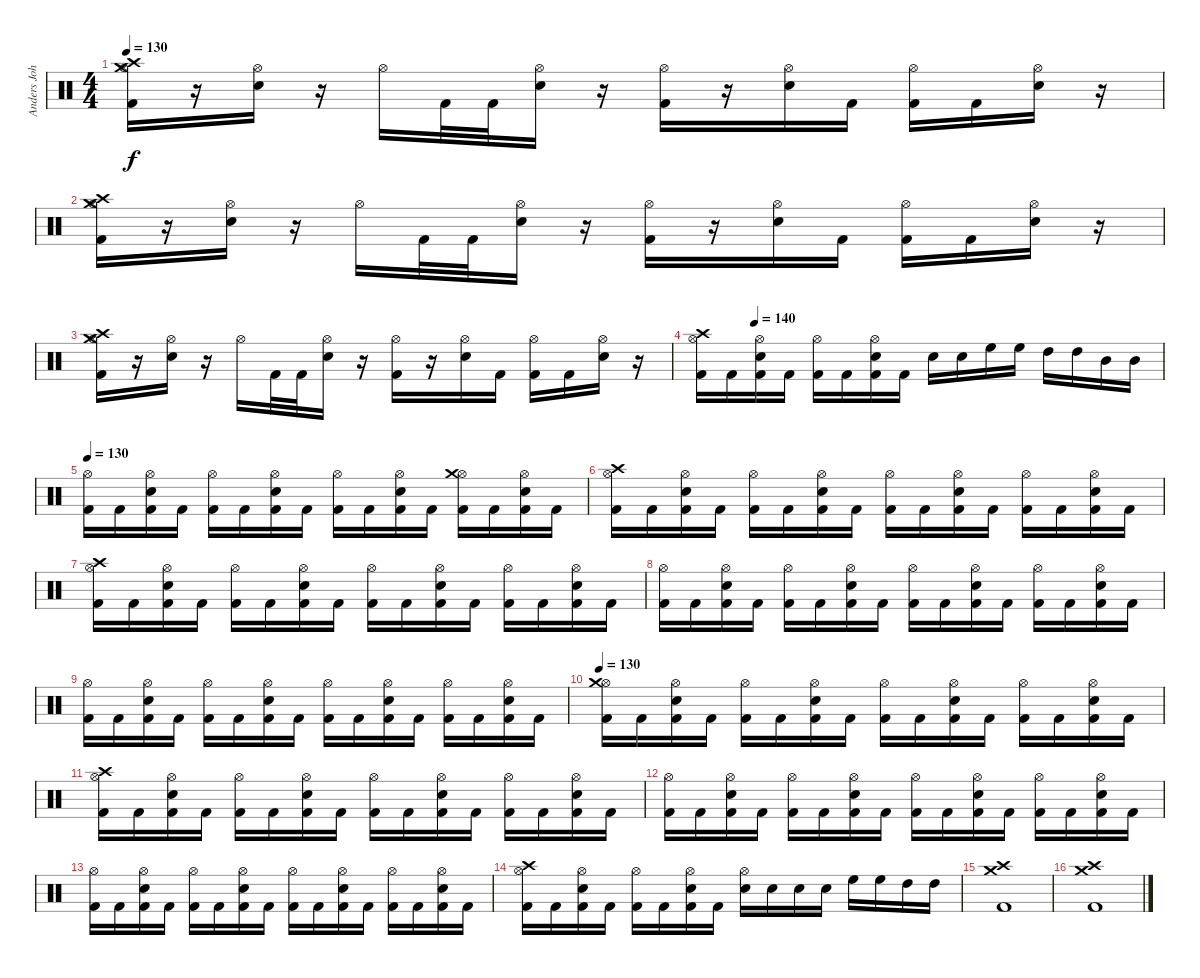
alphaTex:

\track ("Anders Johansson - Drums" "Anders Joh") {instrument percussion}
\staff {score}
\articulation defaults
\ts (4 4)
\tempo 130
\clef neutral
\ks c
("Hi-Hat (open)" "Kick (hit) 2" "Crash medium (hit)" "Crash high (hit)").16{dy f} r.16 ("Hi-Hat (open)" "Electric Snare (hit)").16 r.16 "Hi-Hat (open)".16 "Kick (hit) 2".32 "Kick (hit) 2".32 ("Hi-Hat (open)" "Electric Snare (hit)").16 r.16 ("Hi-Hat (open)" "Kick (hit) 2").16 r.16 ("Hi-Hat (open)" "Electric Snare (hit)").16 "Kick (hit) 2".16 ("Hi-Hat (open)" "Kick (hit) 2").16 "Kick (hit) 2".16 ("Hi-Hat (open)" "Electric Snare (hit)").16 r.16 |
("Hi-Hat (open)" "Kick (hit) 2" "Crash medium (hit)" "Crash high (hit)").16 r.16 ("Hi-Hat (open)" "Electric Snare (hit)").16 r.16 "Hi-Hat (open)".16 "Kick (hit) 2".32 "Kick (hit) 2".32 ("Hi-Hat (open)" "Electric Snare (hit)").16 r.16 ("Hi-Hat (open)" "Kick (hit) 2").16 r.16 ("Hi-Hat (open)" "Electric Snare (hit)").16 "Kick (hit) 2".16 ("Hi-Hat (open)" "Kick (hit) 2").16 "Kick (hit) 2".16 ("Hi-Hat (open)" "Electric Snare (hit)").16 r.16 |
("Hi-Hat (open)" "Kick (hit) 2" "Crash medium (hit)" "Crash high (hit)").16 r.16 ("Hi-Hat (open)" "Electric Snare (hit)").16 r.16 "Hi-Hat (open)".16 "Kick (hit) 2".32 "Kick (hit) 2".32 ("Hi-Hat (open)" "Electric Snare (hit)").16 r.16 ("Hi-Hat (open)" "Kick (hit) 2").16 r.16 ("Hi-Hat (open)" "Electric Snare (hit)").16 "Kick (hit) 2".16 ("Hi-Hat (open)" "Kick (hit) 2").16 "Kick (hit) 2".16 ("Hi-Hat (open)" "Electric Snare (hit)").16 r.16 |
\tempo (140 0.125)
("Hi-Hat (open)" "Kick (hit) 2" "Crash high (hit)").16 "Kick (hit) 2".16 ("Hi-Hat (open)" "Kick (hit) 2" "Electric Snare (hit)").16 "Kick (hit) 2".16 ("Hi-Hat (open)" "Kick (hit) 2").16 "Kick (hit) 2".16 ("Hi-Hat (open)" "Kick (hit) 2" "Electric Snare (hit)").16 "Kick (hit) 2".16 "Electric Snare (hit)".16 "Electric Snare (hit)".16 "High Floor Tom (hit)".16 "High Floor Tom (hit)".16 "High Tom (hit)".16 "High Tom (hit)".16 "Mid Tom (hit)".16 "Mid Tom (hit)".16 |
\tempo 130
("Hi-Hat (open)" "Kick (hit) 2").16 "Kick (hit) 2".16 ("Hi-Hat (open)" "Kick (hit) 2" "Electric Snare (hit)").16 "Kick (hit) 2".16 ("Hi-Hat (open)" "Kick (hit) 2").16 "Kick (hit) 2".16 ("Hi-Hat (open)" "Kick (hit) 2" "Electric Snare (hit)").16 "Kick (hit) 2".16 ("Hi-Hat (open)" "Kick (hit) 2").16 "Kick (hit) 2".16 ("Hi-Hat (open)" "Kick (hit) 2" "Electric Snare (hit)").16 "Kick (hit) 2".16 ("Hi-Hat (open)" "Kick (hit) 2" "Crash medium (hit)").16 "Kick (hit) 2".16 ("Hi-Hat (open)" "Kick (hit) 2" "Electric Snare (hit)").16 "Kick (hit) 2".16 |
("Hi-Hat (open)" "Kick (hit) 2" "Crash high (hit)").16 "Kick (hit) 2".16 ("Hi-Hat (open)" "Kick (hit) 2" "Electric Snare (hit)").16 "Kick (hit) 2".16 ("Hi-Hat (open)" "Kick (hit) 2").16 "Kick (hit) 2".16 ("Hi-Hat (open)" "Kick (hit) 2" "Electric Snare (hit)").16 "Kick (hit) 2".16 ("Hi-Hat (open)" "Kick (hit) 2").16 "Kick (hit) 2".16 ("Hi-Hat (open)" "Kick (hit) 2" "Electric Snare (hit)").16 "Kick (hit) 2".16 ("Hi-Hat (open)" "Kick (hit) 2").16 "Kick (hit) 2".16 ("Hi-Hat (open)" "Kick (hit) 2" "Electric Snare (hit)").16 "Kick (hit) 2".16 |
("Hi-Hat (open)" "Kick (hit) 2" "Crash high (hit)").16 "Kick (hit) 2".16 ("Hi-Hat (open)" "Kick (hit) 2" "Electric Snare (hit)").16 "Kick (hit) 2".16 ("Hi-Hat (open)" "Kick (hit) 2").16 "Kick (hit) 2".16 ("Hi-Hat (open)" "Kick (hit) 2" "Electric Snare (hit)").16 "Kick (hit) 2".16 ("Hi-Hat (open)" "Kick (hit) 2").16 "Kick (hit) 2".16 ("Hi-Hat (open)" "Kick (hit) 2" "Electric Snare (hit)").16 "Kick (hit) 2".16 ("Hi-Hat (open)" "Kick (hit) 2").16 "Kick (hit) 2".16 ("Hi-Hat (open)" "Kick (hit) 2" "Electric Snare (hit)").16 "Kick (hit) 2".16 |
("Hi-Hat (open)" "Kick (hit) 2").16 "Kick (hit) 2".16 ("Hi-Hat (open)" "Kick (hit) 2" "Electric Snare (hit)").16 "Kick (hit) 2".16 ("Hi-Hat (open)" "Kick (hit) 2").16 "Kick (hit) 2".16 ("Hi-Hat (open)" "Kick (hit) 2" "Electric Snare (hit)").16 "Kick (hit) 2".16 ("Hi-Hat (open)" "Kick (hit) 2").16 "Kick (hit) 2".16 ("Hi-Hat (open)" "Kick (hit) 2" "Electric Snare (hit)").16 "Kick (hit) 2".16 ("Hi-Hat (open)" "Kick (hit) 2").16 "Kick (hit) 2".16 ("Hi-Hat (open)" "Kick (hit) 2" "Electric Snare (hit)").16 "Kick (hit) 2".16 |
("Hi-Hat (open)" "Kick (hit) 2").16 "Kick (hit) 2".16 ("Hi-Hat (open)" "Kick (hit) 2" "Electric Snare (hit)").16 "Kick (hit) 2".16 ("Hi-Hat (open)" "Kick (hit) 2").16 "Kick (hit) 2".16 ("Hi-Hat (open)" "Kick (hit) 2" "Electric Snare (hit)").16 "Kick (hit) 2".16 ("Hi-Hat (open)" "Kick (hit) 2").16 "Kick (hit) 2".16 ("Hi-Hat (open)" "Kick (hit) 2" "Electric Snare (hit)").16 "Kick (hit) 2".16 ("Hi-Hat (open)" "Kick (hit) 2").16 "Kick (hit) 2".16 ("Hi-Hat (open)" "Kick (hit) 2" "Electric Snare (hit)").16 "Kick (hit) 2".16 |
\tempo 130
("Hi-Hat (open)" "Kick (hit) 2" "Crash medium (hit)").16 "Kick (hit) 2".16 ("Hi-Hat (open)" "Kick (hit) 2" "Electric Snare (hit)").16 "Kick (hit) 2".16 ("Hi-Hat (open)" "Kick (hit) 2").16 "Kick (hit) 2".16 ("Hi-Hat (open)" "Kick (hit) 2" "Electric Snare (hit)").16 "Kick (hit) 2".16 ("Hi-Hat (open)" "Kick (hit) 2").16 "Kick (hit) 2".16 ("Hi-Hat (open)" "Kick (hit) 2" "Electric Snare (hit)").16 "Kick (hit) 2".16 ("Hi-Hat (open)" "Kick (hit) 2").16 "Kick (hit) 2".16 ("Hi-Hat (open)" "Kick (hit) 2" "Electric Snare (hit)").16 "Kick (hit) 2".16 |
("Hi-Hat (open)" "Kick (hit) 2" "Crash high (hit)").16 "Kick (hit) 2".16 ("Hi-Hat (open)" "Kick (hit) 2" "Electric Snare (hit)").16 "Kick (hit) 2".16 ("Hi-Hat (open)" "Kick (hit) 2").16 "Kick (hit) 2".16 ("Hi-Hat (open)" "Kick (hit) 2" "Electric Snare (hit)").16 "Kick (hit) 2".16 ("Hi-Hat (open)" "Kick (hit) 2").16 "Kick (hit) 2".16 ("Hi-Hat (open)" "Kick (hit) 2" "Electric Snare (hit)").16 "Kick (hit) 2".16 ("Hi-Hat (open)" "Kick (hit) 2").16 "Kick (hit) 2".16 ("Hi-Hat (open)" "Kick (hit) 2" "Electric Snare (hit)").16 "Kick (hit) 2".16 |
("Hi-Hat (open)" "Kick (hit) 2").16 "Kick (hit) 2".16 ("Hi-Hat (open)" "Kick (hit) 2" "Electric Snare (hit)").16 "Kick (hit) 2".16 ("Hi-Hat (open)" "Kick (hit) 2").16 "Kick (hit) 2".16 ("Hi-Hat (open)" "Kick (hit) 2" "Electric Snare (hit)").16 "Kick (hit) 2".16 ("Hi-Hat (open)" "Kick (hit) 2").16 "Kick (hit) 2".16 ("Hi-Hat (open)" "Kick (hit) 2" "Electric Snare (hit)").16 "Kick (hit) 2".16 ("Hi-Hat (open)" "Kick (hit) 2").16 "Kick (hit) 2".16 ("Hi-Hat (open)" "Kick (hit) 2" "Electric Snare (hit)").16 "Kick (hit) 2".16 |
("Hi-Hat (open)" "Kick (hit) 2").16 "Kick (hit) 2".16 ("Hi-Hat (open)" "Kick (hit) 2" "Electric Snare (hit)").16 "Kick (hit) 2".16 ("Hi-Hat (open)" "Kick (hit) 2").16 "Kick (hit) 2".16 ("Hi-Hat (open)" "Kick (hit) 2" "Electric Snare (hit)").16 "Kick (hit) 2".16 ("Hi-Hat (open)" "Kick (hit) 2").16 "Kick (hit) 2".16 ("Hi-Hat (open)" "Kick (hit) 2" "Electric Snare (hit)").16 "Kick (hit) 2".16 ("Hi-Hat (open)" "Kick (hit) 2").16 "Kick (hit) 2".16 ("Hi-Hat (open)" "Kick (hit) 2" "Electric Snare (hit)").16 "Kick (hit) 2".16 |
("Hi-Hat (open)" "Kick (hit) 2" "Crash high (hit)").16 "Kick (hit) 2".16 ("Hi-Hat (open)" "Kick (hit) 2" "Electric Snare (hit)").16 "Kick (hit) 2".16 ("Hi-Hat (open)" "Kick (hit) 2").16 "Kick (hit) 2".16 ("Hi-Hat (open)" "Kick (hit) 2" "Electric Snare (hit)").16 "Kick (hit) 2".16 ("Hi-Hat (open)" "Electric Snare (hit)").16 "Electric Snare (hit)".16 "Electric Snare (hit)".16 "Electric Snare (hit)".16 "High Floor Tom (hit)".16 "High Floor Tom (hit)".16 "High Tom (hit)".16 "High Tom (hit)".16 |
("Crash high (hit)" "Crash medium (hit)" "Kick (hit) 2").1 |
("Crash high (hit)" "Crash medium (hit)" "Kick (hit) 2").1
